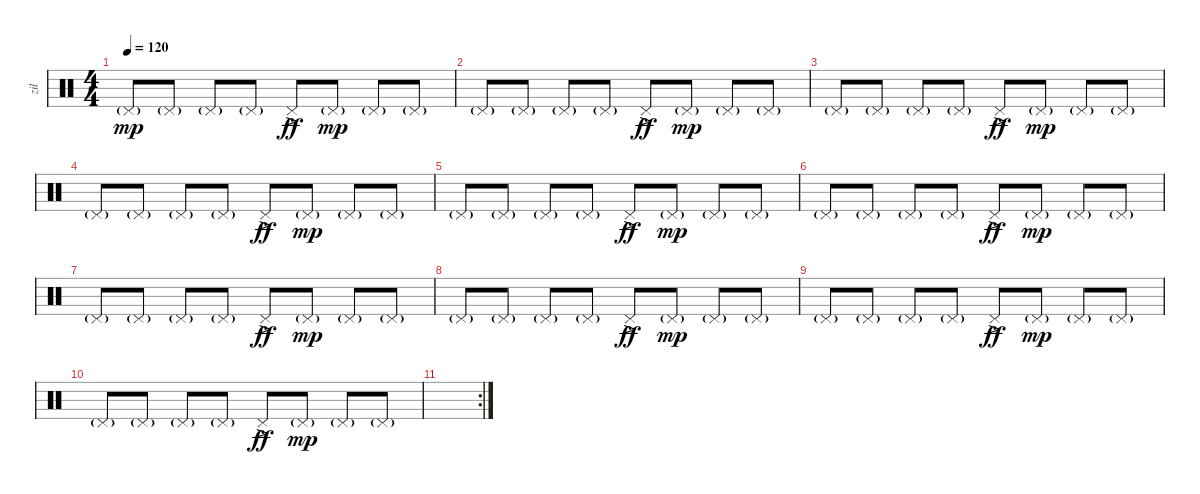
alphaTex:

\track ("zil" "zil") {instrument percussion}
\staff {score}
\articulation defaults
\ts (4 4)
\tempo 120
\clef neutral
\ks c "Pedal Hi-Hat (hit)"{g}.8{dy mp} "Pedal Hi-Hat (hit)"{g}.8 "Pedal Hi-Hat (hit)"{g}.8 "Pedal Hi-Hat (hit)"{g}.8 "Pedal Hi-Hat (hit)"{ac}.8{dy ff} "Pedal Hi-Hat (hit)"{g}.8{dy mp} "Pedal Hi-Hat (hit)"{g}.8 "Pedal Hi-Hat (hit)"{g}.8
|
"Pedal Hi-Hat (hit)"{g}.8 "Pedal Hi-Hat (hit)"{g}.8 "Pedal Hi-Hat (hit)"{g}.8 "Pedal Hi-Hat (hit)"{g}.8 "Pedal Hi-Hat (hit)"{ac}.8{dy ff} "Pedal Hi-Hat (hit)"{g}.8{dy mp} "Pedal Hi-Hat (hit)"{g}.8 "Pedal Hi-Hat (hit)"{g}.8 |
"Pedal Hi-Hat (hit)"{g}.8 "Pedal Hi-Hat (hit)"{g}.8 "Pedal Hi-Hat (hit)"{g}.8 "Pedal Hi-Hat (hit)"{g}.8 "Pedal Hi-Hat (hit)"{ac}.8{dy ff} "Pedal Hi-Hat (hit)"{g}.8{dy mp} "Pedal Hi-Hat (hit)"{g}.8 "Pedal Hi-Hat (hit)"{g}.8 |
"Pedal Hi-Hat (hit)"{g}.8 "Pedal Hi-Hat (hit)"{g}.8 "Pedal Hi-Hat (hit)"{g}.8 "Pedal Hi-Hat (hit)"{g}.8 "Pedal Hi-Hat (hit)"{ac}.8{dy ff} "Pedal Hi-Hat (hit)"{g}.8{dy mp} "Pedal Hi-Hat (hit)"{g}.8 "Pedal Hi-Hat (hit)"{g}.8 |
"Pedal Hi-Hat (hit)"{g}.8 "Pedal Hi-Hat (hit)"{g}.8 "Pedal Hi-Hat (hit)"{g}.8 "Pedal Hi-Hat (hit)"{g}.8 "Pedal Hi-Hat (hit)"{ac}.8{dy ff} "Pedal Hi-Hat (hit)"{g}.8{dy mp} "Pedal Hi-Hat (hit)"{g}.8 "Pedal Hi-Hat (hit)"{g}.8 |
"Pedal Hi-Hat (hit)"{g}.8 "Pedal Hi-Hat (hit)"{g}.8 "Pedal Hi-Hat (hit)"{g}.8 "Pedal Hi-Hat (hit)"{g}.8 "Pedal Hi-Hat (hit)"{ac}.8{dy ff} "Pedal Hi-Hat (hit)"{g}.8{dy mp} "Pedal Hi-Hat (hit)"{g}.8 "Pedal Hi-Hat (hit)"{g}.8 |
"Pedal Hi-Hat (hit)"{g}.8 "Pedal Hi-Hat (hit)"{g}.8 "Pedal Hi-Hat (hit)"{g}.8 "Pedal Hi-Hat (hit)"{g}.8 "Pedal Hi-Hat (hit)"{ac}.8{dy ff} "Pedal Hi-Hat (hit)"{g}.8{dy mp} "Pedal Hi-Hat (hit)"{g}.8 "Pedal Hi-Hat (hit)"{g}.8 |
"Pedal Hi-Hat (hit)"{g}.8 "Pedal Hi-Hat (hit)"{g}.8 "Pedal Hi-Hat (hit)"{g}.8 "Pedal Hi-Hat (hit)"{g}.8 "Pedal Hi-Hat (hit)"{ac}.8{dy ff} "Pedal Hi-Hat (hit)"{g}.8{dy mp} "Pedal Hi-Hat (hit)"{g}.8 "Pedal Hi-Hat (hit)"{g}.8 |
"Pedal Hi-Hat (hit)"{g}.8 "Pedal Hi-Hat (hit)"{g}.8 "Pedal Hi-Hat (hit)"{g}.8 "Pedal Hi-Hat (hit)"{g}.8 "Pedal Hi-Hat (hit)"{ac}.8{dy ff} "Pedal Hi-Hat (hit)"{g}.8{dy mp} "Pedal Hi-Hat (hit)"{g}.8 "Pedal Hi-Hat (hit)"{g}.8 |
"Pedal Hi-Hat (hit)"{g}.8 "Pedal Hi-Hat (hit)"{g}.8 "Pedal Hi-Hat (hit)"{g}.8 "Pedal Hi-Hat (hit)"{g}.8 "Pedal Hi-Hat (hit)"{ac}.8{dy ff} "Pedal Hi-Hat (hit)"{g}.8{dy mp} "Pedal Hi-Hat (hit)"{g}.8 "Pedal Hi-Hat (hit)"{g}.8 |
\rc 2
